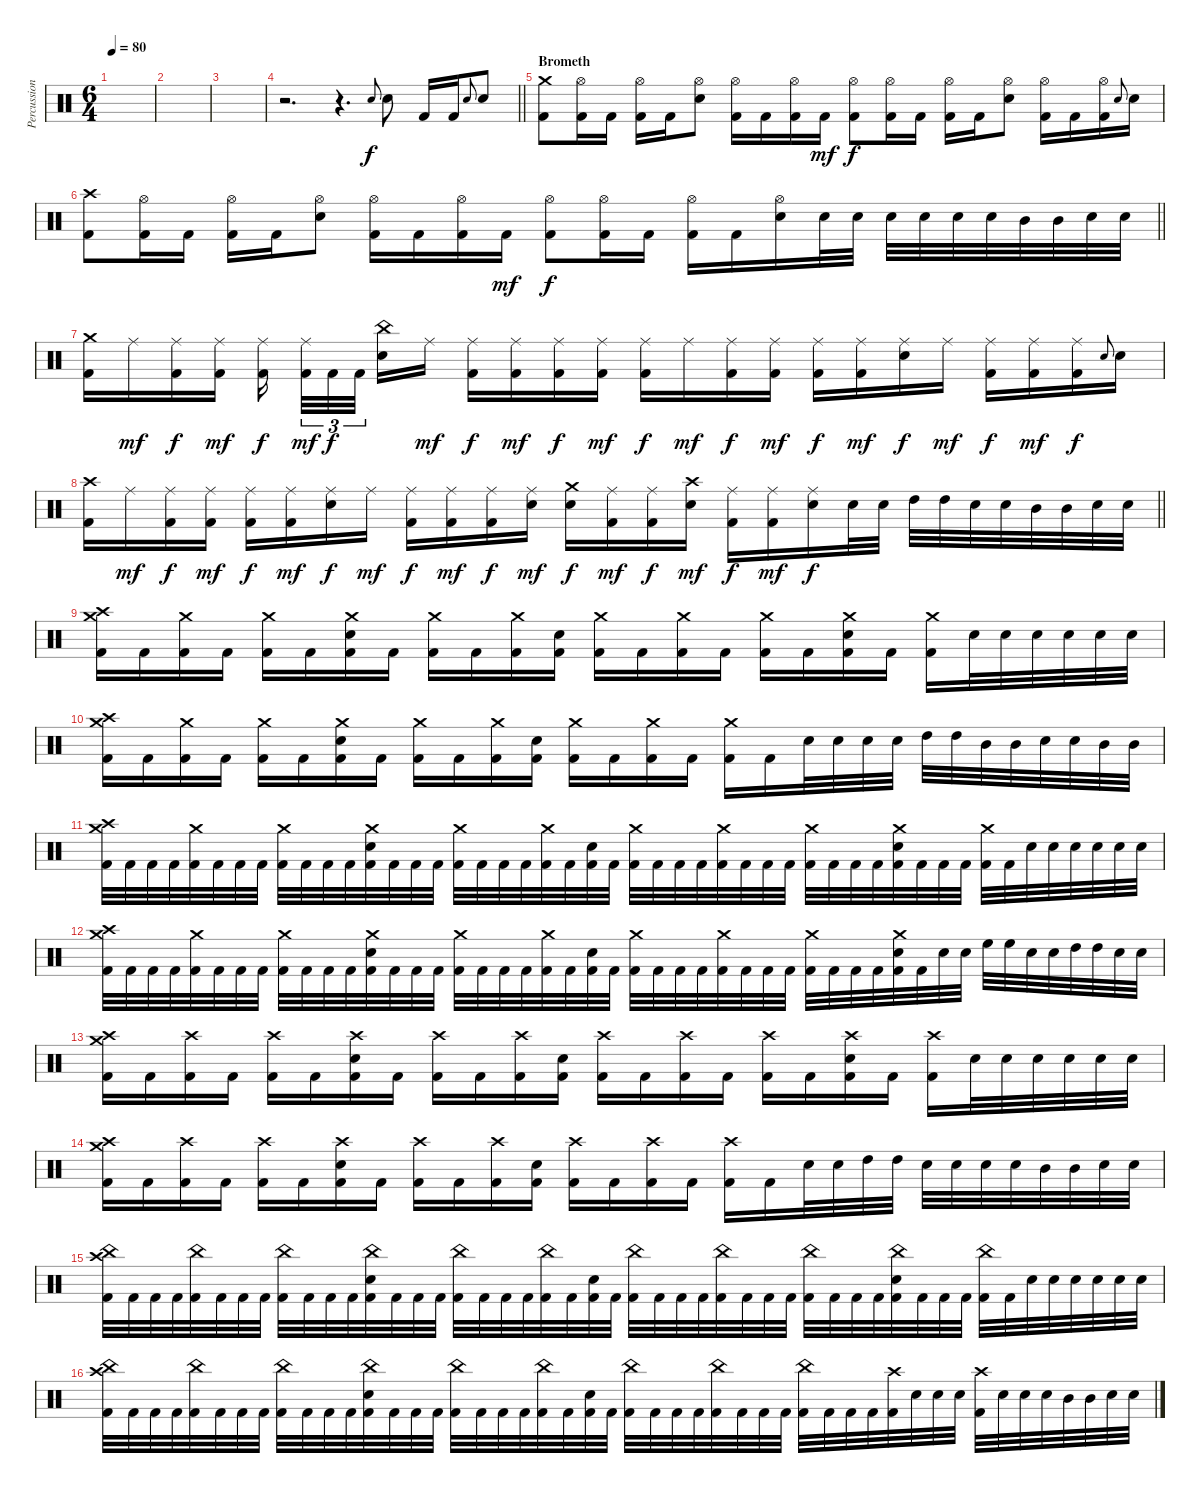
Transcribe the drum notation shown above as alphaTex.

\track ("Percussion" "Percussion") {instrument percussion}
\staff {score}
\articulation defaults
\ts (6 4)
\tempo 80
\clef neutral
\ks c
|
|
|
\barLineRight lightlight
r.2{d} r.4{d} "Electric Snare (hit)".8{gr onbeat} "Electric Snare (hit)".8 "Kick (hit) 2".16 "Kick (hit) 2".16 "Electric Snare (hit)".8{gr onbeat} "Electric Snare (hit)".8 |
\section ("" "Brometh")
("Crash medium (hit)" "Kick (hit) 2").8 ("Hi-Hat (open)" "Kick (hit) 2").16 "Kick (hit) 2".16 ("Hi-Hat (open)" "Kick (hit) 2").16 "Kick (hit) 2".16 ("Hi-Hat (open)" "Electric Snare (hit)").8 ("Hi-Hat (open)" "Kick (hit) 2").16 "Kick (hit) 2".16 ("Hi-Hat (open)" "Kick (hit) 2").16 "Kick (hit) 2".16{dy mf} ("Hi-Hat (open)" "Kick (hit) 2").8{dy f} ("Hi-Hat (open)" "Kick (hit) 2").16 "Kick (hit) 2".16 ("Hi-Hat (open)" "Kick (hit) 2").16 "Kick (hit) 2".16 ("Hi-Hat (open)" "Electric Snare (hit)").8 ("Hi-Hat (open)" "Kick (hit) 2").16 "Kick (hit) 2".16 ("Hi-Hat (open)" "Kick (hit) 2").16 "Electric Snare (hit)".8{gr onbeat} "Electric Snare (hit)".16 |
\barLineRight lightlight
("Crash high (hit)" "Kick (hit) 2").8 ("Hi-Hat (open)" "Kick (hit) 2").16 "Kick (hit) 2".16 ("Hi-Hat (open)" "Kick (hit) 2").16 "Kick (hit) 2".16 ("Hi-Hat (open)" "Electric Snare (hit)").8 ("Hi-Hat (open)" "Kick (hit) 2").16 "Kick (hit) 2".16 ("Hi-Hat (open)" "Kick (hit) 2").16 "Kick (hit) 2".16{dy mf} ("Hi-Hat (open)" "Kick (hit) 2").8{dy f} ("Hi-Hat (open)" "Kick (hit) 2").16 "Kick (hit) 2".16 ("Hi-Hat (open)" "Kick (hit) 2").16 "Kick (hit) 2".16 ("Hi-Hat (open)" "Electric Snare (hit)").16 "Electric Snare (hit)".32 "Electric Snare (hit)".32 "Electric Snare (hit)".32 "Electric Snare (hit)".32 "Electric Snare (hit)".32 "Electric Snare (hit)".32 "Mid Tom (hit)".32 "Mid Tom (hit)".32 "Electric Snare (hit)".32 "Electric Snare (hit)".32 |
("Crash medium (hit)" "Kick (hit) 2").16 "Ride (middle)".16{dy mf} ("Ride (middle)" "Kick (hit) 2").16{dy f} ("Ride (middle)" "Kick (hit) 2").16{dy mf} ("Ride (middle)" "Kick (hit) 2").16{dy f beam splitsecondary} ("Ride (middle)" "Kick (hit) 2").32{tu (3 2) dy mf} "Kick (hit) 2".32{tu (3 2) dy f} "Kick (hit) 2".32{tu (3 2) beam splitsecondary} ("China (hit)" "Electric Snare (hit)").16 "Ride (middle)".16{dy mf} ("Ride (middle)" "Kick (hit) 2").16{dy f} ("Ride (middle)" "Kick (hit) 2").16{dy mf} ("Ride (middle)" "Kick (hit) 2").16{dy f} ("Ride (middle)" "Kick (hit) 2").16{dy mf} ("Ride (middle)" "Kick (hit) 2").16{dy f} "Ride (middle)".16{dy mf} ("Ride (middle)" "Kick (hit) 2").16{dy f} ("Ride (middle)" "Kick (hit) 2").16{dy mf} ("Ride (middle)" "Kick (hit) 2").16{dy f} ("Ride (middle)" "Kick (hit) 2").16{dy mf} ("Ride (middle)" "Electric Snare (hit)").16{dy f} "Ride (middle)".16{dy mf} ("Ride (middle)" "Kick (hit) 2").16{dy f} ("Ride (middle)" "Kick (hit) 2").16{dy mf} ("Ride (middle)" "Kick (hit) 2").16{dy f} "Electric Snare (hit)".8{gr onbeat} "Electric Snare (hit)".16 |
\barLineRight lightlight
("Crash high (hit)" "Kick (hit) 2").16 "Ride (middle)".16{dy mf} ("Ride (middle)" "Kick (hit) 2").16{dy f} ("Ride (middle)" "Kick (hit) 2").16{dy mf} ("Ride (middle)" "Kick (hit) 2").16{dy f} ("Ride (middle)" "Kick (hit) 2").16{dy mf} ("Ride (middle)" "Electric Snare (hit)").16{dy f} "Ride (middle)".16{dy mf} ("Ride (middle)" "Kick (hit) 2").16{dy f} ("Ride (middle)" "Kick (hit) 2").16{dy mf} ("Ride (middle)" "Kick (hit) 2").16{dy f} ("Ride (middle)" "Electric Snare (hit)").16{dy mf} ("Crash medium (hit)" "Electric Snare (hit)").16{dy f} ("Ride (middle)" "Kick (hit) 2").16{dy mf} ("Ride (middle)" "Kick (hit) 2").16{dy f} ("Crash high (hit)" "Electric Snare (hit)").16{dy mf} ("Ride (middle)" "Kick (hit) 2").16{dy f} ("Ride (middle)" "Kick (hit) 2").16{dy mf} ("Ride (middle)" "Electric Snare (hit)").16{dy f} "Electric Snare (hit)".32 "Electric Snare (hit)".32 "High Tom (hit)".32 "High Tom (hit)".32 "Electric Snare (hit)".32 "Electric Snare (hit)".32 "Mid Tom (hit)".32 "Mid Tom (hit)".32 "Electric Snare (hit)".32 "Electric Snare (hit)".32 |
("Crash medium (hit)" "Crash high (hit)" "Kick (hit) 2").16 "Kick (hit) 2".16 ("Crash medium (hit)" "Kick (hit) 2").16 "Kick (hit) 2".16 ("Crash medium (hit)" "Kick (hit) 2").16 "Kick (hit) 2".16 ("Crash medium (hit)" "Electric Snare (hit)" "Kick (hit) 2").16 "Kick (hit) 2".16 ("Crash medium (hit)" "Kick (hit) 2").16 "Kick (hit) 2".16 ("Crash medium (hit)" "Kick (hit) 2").16 ("Electric Snare (hit)" "Kick (hit) 2").16 ("Crash medium (hit)" "Kick (hit) 2").16 "Kick (hit) 2".16 ("Crash medium (hit)" "Kick (hit) 2").16 "Kick (hit) 2".16 ("Crash medium (hit)" "Kick (hit) 2").16 "Kick (hit) 2".16 ("Crash medium (hit)" "Electric Snare (hit)" "Kick (hit) 2").16 "Kick (hit) 2".16 ("Crash medium (hit)" "Kick (hit) 2").16 "Electric Snare (hit)".32 "Electric Snare (hit)".32 "Electric Snare (hit)".32 "Electric Snare (hit)".32 "Electric Snare (hit)".32 "Electric Snare (hit)".32 |
("Crash medium (hit)" "Crash high (hit)" "Kick (hit) 2").16 "Kick (hit) 2".16 ("Crash medium (hit)" "Kick (hit) 2").16 "Kick (hit) 2".16 ("Crash medium (hit)" "Kick (hit) 2").16 "Kick (hit) 2".16 ("Crash medium (hit)" "Electric Snare (hit)" "Kick (hit) 2").16 "Kick (hit) 2".16 ("Crash medium (hit)" "Kick (hit) 2").16 "Kick (hit) 2".16 ("Crash medium (hit)" "Kick (hit) 2").16 ("Electric Snare (hit)" "Kick (hit) 2").16 ("Crash medium (hit)" "Kick (hit) 2").16 "Kick (hit) 2".16 ("Crash medium (hit)" "Kick (hit) 2").16 "Kick (hit) 2".16 ("Crash medium (hit)" "Kick (hit) 2").16 "Kick (hit) 2".16 "Electric Snare (hit)".32 "Electric Snare (hit)".32 "Electric Snare (hit)".32 "Electric Snare (hit)".32 "High Tom (hit)".32 "High Tom (hit)".32 "Mid Tom (hit)".32 "Mid Tom (hit)".32 "Electric Snare (hit)".32 "Electric Snare (hit)".32 "Mid Tom (hit)".32 "Mid Tom (hit)".32 |
("Crash medium (hit)" "Crash high (hit)" "Kick (hit) 2").32 "Kick (hit) 2".32 "Kick (hit) 2".32 "Kick (hit) 2".32 ("Crash medium (hit)" "Kick (hit) 2").32 "Kick (hit) 2".32 "Kick (hit) 2".32 "Kick (hit) 2".32 ("Crash medium (hit)" "Kick (hit) 2").32 "Kick (hit) 2".32 "Kick (hit) 2".32 "Kick (hit) 2".32 ("Crash medium (hit)" "Electric Snare (hit)" "Kick (hit) 2").32 "Kick (hit) 2".32 "Kick (hit) 2".32 "Kick (hit) 2".32 ("Crash medium (hit)" "Kick (hit) 2").32 "Kick (hit) 2".32 "Kick (hit) 2".32 "Kick (hit) 2".32 ("Crash medium (hit)" "Kick (hit) 2").32 "Kick (hit) 2".32 ("Electric Snare (hit)" "Kick (hit) 2").32 "Kick (hit) 2".32 ("Crash medium (hit)" "Kick (hit) 2").32 "Kick (hit) 2".32 "Kick (hit) 2".32 "Kick (hit) 2".32 ("Crash medium (hit)" "Kick (hit) 2").32 "Kick (hit) 2".32 "Kick (hit) 2".32 "Kick (hit) 2".32 ("Crash medium (hit)" "Kick (hit) 2").32 "Kick (hit) 2".32 "Kick (hit) 2".32 "Kick (hit) 2".32 ("Crash medium (hit)" "Electric Snare (hit)" "Kick (hit) 2").32 "Kick (hit) 2".32 "Kick (hit) 2".32 "Kick (hit) 2".32 ("Crash medium (hit)" "Kick (hit) 2").32 "Kick (hit) 2".32 "Electric Snare (hit)".32 "Electric Snare (hit)".32 "Electric Snare (hit)".32 "Electric Snare (hit)".32 "Electric Snare (hit)".32 "Electric Snare (hit)".32 |
("Crash medium (hit)" "Crash high (hit)" "Kick (hit) 2").32 "Kick (hit) 2".32 "Kick (hit) 2".32 "Kick (hit) 2".32 ("Crash medium (hit)" "Kick (hit) 2").32 "Kick (hit) 2".32 "Kick (hit) 2".32 "Kick (hit) 2".32 ("Crash medium (hit)" "Kick (hit) 2").32 "Kick (hit) 2".32 "Kick (hit) 2".32 "Kick (hit) 2".32 ("Crash medium (hit)" "Electric Snare (hit)" "Kick (hit) 2").32 "Kick (hit) 2".32 "Kick (hit) 2".32 "Kick (hit) 2".32 ("Crash medium (hit)" "Kick (hit) 2").32 "Kick (hit) 2".32 "Kick (hit) 2".32 "Kick (hit) 2".32 ("Crash medium (hit)" "Kick (hit) 2").32 "Kick (hit) 2".32 ("Electric Snare (hit)" "Kick (hit) 2").32 "Kick (hit) 2".32 ("Crash medium (hit)" "Kick (hit) 2").32 "Kick (hit) 2".32 "Kick (hit) 2".32 "Kick (hit) 2".32 ("Crash medium (hit)" "Kick (hit) 2").32 "Kick (hit) 2".32 "Kick (hit) 2".32 "Kick (hit) 2".32 ("Crash medium (hit)" "Kick (hit) 2").32 "Kick (hit) 2".32 "Kick (hit) 2".32 "Kick (hit) 2".32 ("Crash medium (hit)" "Electric Snare (hit)" "Kick (hit) 2").32 "Kick (hit) 2".32 "Electric Snare (hit)".32 "Electric Snare (hit)".32 "High Floor Tom (hit)".32 "High Floor Tom (hit)".32 "Electric Snare (hit)".32 "Electric Snare (hit)".32 "High Tom (hit)".32 "High Tom (hit)".32 "Electric Snare (hit)".32 "Electric Snare (hit)".32 |
("Crash medium (hit)" "Crash high (hit)" "Kick (hit) 2").16 "Kick (hit) 2".16 ("Crash high (hit)" "Kick (hit) 2").16 "Kick (hit) 2".16 ("Crash high (hit)" "Kick (hit) 2").16 "Kick (hit) 2".16 ("Crash high (hit)" "Electric Snare (hit)" "Kick (hit) 2").16 "Kick (hit) 2".16 ("Crash high (hit)" "Kick (hit) 2").16 "Kick (hit) 2".16 ("Crash high (hit)" "Kick (hit) 2").16 ("Electric Snare (hit)" "Kick (hit) 2").16 ("Crash high (hit)" "Kick (hit) 2").16 "Kick (hit) 2".16 ("Crash high (hit)" "Kick (hit) 2").16 "Kick (hit) 2".16 ("Crash high (hit)" "Kick (hit) 2").16 "Kick (hit) 2".16 ("Crash high (hit)" "Electric Snare (hit)" "Kick (hit) 2").16 "Kick (hit) 2".16 ("Crash high (hit)" "Kick (hit) 2").16 "Electric Snare (hit)".32 "Electric Snare (hit)".32 "Electric Snare (hit)".32 "Electric Snare (hit)".32 "Electric Snare (hit)".32 "Electric Snare (hit)".32 |
("Crash medium (hit)" "Crash high (hit)" "Kick (hit) 2").16 "Kick (hit) 2".16 ("Crash high (hit)" "Kick (hit) 2").16 "Kick (hit) 2".16 ("Crash high (hit)" "Kick (hit) 2").16 "Kick (hit) 2".16 ("Crash high (hit)" "Electric Snare (hit)" "Kick (hit) 2").16 "Kick (hit) 2".16 ("Crash high (hit)" "Kick (hit) 2").16 "Kick (hit) 2".16 ("Crash high (hit)" "Kick (hit) 2").16 ("Electric Snare (hit)" "Kick (hit) 2").16 ("Crash high (hit)" "Kick (hit) 2").16 "Kick (hit) 2".16 ("Crash high (hit)" "Kick (hit) 2").16 "Kick (hit) 2".16 ("Crash high (hit)" "Kick (hit) 2").16 "Kick (hit) 2".16 "Electric Snare (hit)".32 "Electric Snare (hit)".32 "High Tom (hit)".32 "High Tom (hit)".32 "Electric Snare (hit)".32 "Electric Snare (hit)".32 "Electric Snare (hit)".32 "Electric Snare (hit)".32 "Mid Tom (hit)".32 "Mid Tom (hit)".32 "Electric Snare (hit)".32 "Electric Snare (hit)".32 |
("China (hit)" "Crash high (hit)" "Kick (hit) 2").32 "Kick (hit) 2".32 "Kick (hit) 2".32 "Kick (hit) 2".32 ("China (hit)" "Kick (hit) 2").32 "Kick (hit) 2".32 "Kick (hit) 2".32 "Kick (hit) 2".32 ("China (hit)" "Kick (hit) 2").32 "Kick (hit) 2".32 "Kick (hit) 2".32 "Kick (hit) 2".32 ("China (hit)" "Electric Snare (hit)" "Kick (hit) 2").32 "Kick (hit) 2".32 "Kick (hit) 2".32 "Kick (hit) 2".32 ("China (hit)" "Kick (hit) 2").32 "Kick (hit) 2".32 "Kick (hit) 2".32 "Kick (hit) 2".32 ("China (hit)" "Kick (hit) 2").32 "Kick (hit) 2".32 ("Electric Snare (hit)" "Kick (hit) 2").32 "Kick (hit) 2".32 ("China (hit)" "Kick (hit) 2").32 "Kick (hit) 2".32 "Kick (hit) 2".32 "Kick (hit) 2".32 ("China (hit)" "Kick (hit) 2").32 "Kick (hit) 2".32 "Kick (hit) 2".32 "Kick (hit) 2".32 ("China (hit)" "Kick (hit) 2").32 "Kick (hit) 2".32 "Kick (hit) 2".32 "Kick (hit) 2".32 ("China (hit)" "Electric Snare (hit)" "Kick (hit) 2").32 "Kick (hit) 2".32 "Kick (hit) 2".32 "Kick (hit) 2".32 ("China (hit)" "Kick (hit) 2").32 "Kick (hit) 2".32 "Electric Snare (hit)".32 "Electric Snare (hit)".32 "Electric Snare (hit)".32 "Electric Snare (hit)".32 "Electric Snare (hit)".32 "Electric Snare (hit)".32 |
("China (hit)" "Crash high (hit)" "Kick (hit) 2").32 "Kick (hit) 2".32 "Kick (hit) 2".32 "Kick (hit) 2".32 ("China (hit)" "Kick (hit) 2").32 "Kick (hit) 2".32 "Kick (hit) 2".32 "Kick (hit) 2".32 ("China (hit)" "Kick (hit) 2").32 "Kick (hit) 2".32 "Kick (hit) 2".32 "Kick (hit) 2".32 ("China (hit)" "Electric Snare (hit)" "Kick (hit) 2").32 "Kick (hit) 2".32 "Kick (hit) 2".32 "Kick (hit) 2".32 ("China (hit)" "Kick (hit) 2").32 "Kick (hit) 2".32 "Kick (hit) 2".32 "Kick (hit) 2".32 ("China (hit)" "Kick (hit) 2").32 "Kick (hit) 2".32 ("Electric Snare (hit)" "Kick (hit) 2").32 "Kick (hit) 2".32 ("China (hit)" "Kick (hit) 2").32 "Kick (hit) 2".32 "Kick (hit) 2".32 "Kick (hit) 2".32 ("China (hit)" "Kick (hit) 2").32 "Kick (hit) 2".32 "Kick (hit) 2".32 "Kick (hit) 2".32 ("China (hit)" "Kick (hit) 2").32 "Kick (hit) 2".32 "Kick (hit) 2".32 "Kick (hit) 2".32 ("Crash high (hit)" "Kick (hit) 2").32 "Electric Snare (hit)".32 "Electric Snare (hit)".32 "Electric Snare (hit)".32 ("Crash high (hit)" "Kick (hit) 2").32 "Electric Snare (hit)".32 "Electric Snare (hit)".32 "Electric Snare (hit)".32 "Mid Tom (hit)".32 "Mid Tom (hit)".32 "Electric Snare (hit)".32 "Electric Snare (hit)".32
